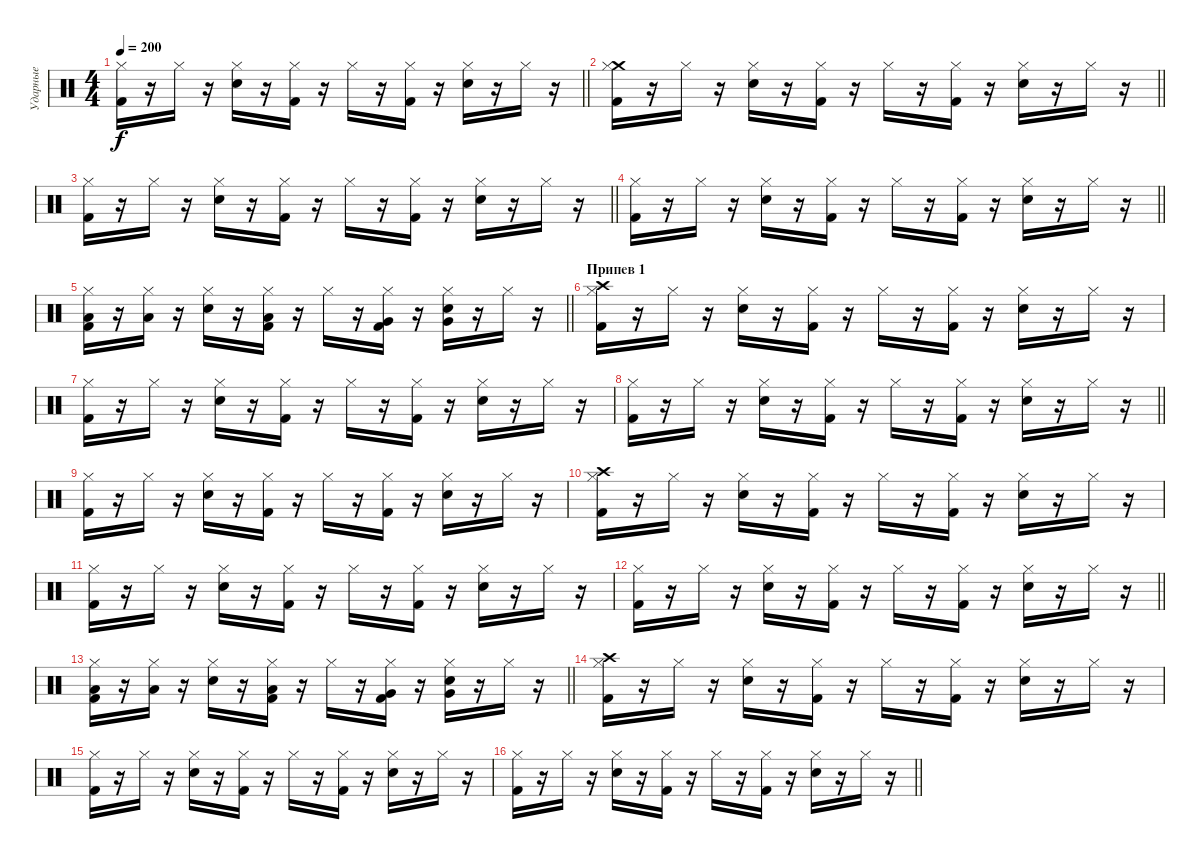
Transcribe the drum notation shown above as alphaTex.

\track ("Ударные" "Ударные") {instrument percussion}
\staff {score}
\articulation defaults
\ts (4 4)
\tempo 200
\clef neutral
\barLineRight lightlight
\ks c
("Kick (hit) 2" "Hi-Hat (closed)").16{dy f} r.16 "Hi-Hat (closed)".16 r.16 ("Snare (hit) 2" "Hi-Hat (closed)").16 r.16 ("Kick (hit) 2" "Hi-Hat (closed)").16 r.16 "Hi-Hat (closed)".16 r.16 ("Kick (hit) 2" "Hi-Hat (closed)").16 r.16 ("Snare (hit) 2" "Hi-Hat (closed)").16 r.16 "Hi-Hat (closed)".16 r.16 |
\barLineRight lightlight
("Kick (hit) 2" "Crash medium (hit)" "Hi-Hat (closed)").16 r.16 "Hi-Hat (closed)".16 r.16 ("Snare (hit) 2" "Hi-Hat (closed)").16 r.16 ("Kick (hit) 2" "Hi-Hat (closed)").16 r.16 "Hi-Hat (closed)".16 r.16 ("Kick (hit) 2" "Hi-Hat (closed)").16 r.16 ("Snare (hit) 2" "Hi-Hat (closed)").16 r.16 "Hi-Hat (closed)".16 r.16 |
\barLineRight lightlight
("Kick (hit) 2" "Hi-Hat (closed)").16 r.16 "Hi-Hat (closed)".16 r.16 ("Snare (hit) 2" "Hi-Hat (closed)").16 r.16 ("Kick (hit) 2" "Hi-Hat (closed)").16 r.16 "Hi-Hat (closed)".16 r.16 ("Kick (hit) 2" "Hi-Hat (closed)").16 r.16 ("Snare (hit) 2" "Hi-Hat (closed)").16 r.16 "Hi-Hat (closed)".16 r.16 |
\barLineRight lightlight
("Kick (hit) 2" "Hi-Hat (closed)").16 r.16 "Hi-Hat (closed)".16 r.16 ("Snare (hit) 2" "Hi-Hat (closed)").16 r.16 ("Kick (hit) 2" "Hi-Hat (closed)").16 r.16 "Hi-Hat (closed)".16 r.16 ("Kick (hit) 2" "Hi-Hat (closed)").16 r.16 ("Snare (hit) 2" "Hi-Hat (closed)").16 r.16 "Hi-Hat (closed)".16 r.16 |
\barLineRight lightlight
("Kick (hit) 2" "Low Floor Tom (hit)" "Hi-Hat (closed)").16 r.16 ("Low Floor Tom (hit)" "Hi-Hat (closed)").16 r.16 ("Snare (hit) 2" "Hi-Hat (closed)").16 r.16 ("Kick (hit) 2" "Low Floor Tom (hit)" "Hi-Hat (closed)").16 r.16 "Hi-Hat (closed)".16 r.16 ("Kick (hit) 2" "Very Low Tom (hit)" "Hi-Hat (closed)").16 r.16 ("Snare (hit) 2" "Very Low Tom (hit)" "Hi-Hat (closed)").16 r.16 "Hi-Hat (closed)".16 r.16 |
\section ("" "Припев 1")
("Kick (hit) 2" "Crash high (hit)" "Hi-Hat (closed)").16 r.16 "Hi-Hat (closed)".16 r.16 ("Snare (hit) 2" "Hi-Hat (closed)").16 r.16 ("Kick (hit) 2" "Hi-Hat (closed)").16 r.16 "Hi-Hat (closed)".16 r.16 ("Kick (hit) 2" "Hi-Hat (closed)").16 r.16 ("Snare (hit) 2" "Hi-Hat (closed)").16 r.16 "Hi-Hat (closed)".16 r.16 |
("Kick (hit) 2" "Hi-Hat (closed)").16 r.16 "Hi-Hat (closed)".16 r.16 ("Snare (hit) 2" "Hi-Hat (closed)").16 r.16 ("Kick (hit) 2" "Hi-Hat (closed)").16 r.16 "Hi-Hat (closed)".16 r.16 ("Kick (hit) 2" "Hi-Hat (closed)").16 r.16 ("Snare (hit) 2" "Hi-Hat (closed)").16 r.16 "Hi-Hat (closed)".16 r.16 |
\barLineRight lightlight
("Kick (hit) 2" "Hi-Hat (closed)").16 r.16 "Hi-Hat (closed)".16 r.16 ("Snare (hit) 2" "Hi-Hat (closed)").16 r.16 ("Kick (hit) 2" "Hi-Hat (closed)").16 r.16 "Hi-Hat (closed)".16 r.16 ("Kick (hit) 2" "Hi-Hat (closed)").16 r.16 ("Snare (hit) 2" "Hi-Hat (closed)").16 r.16 "Hi-Hat (closed)".16 r.16 |
("Kick (hit) 2" "Hi-Hat (closed)").16 r.16 "Hi-Hat (closed)".16 r.16 ("Snare (hit) 2" "Hi-Hat (closed)").16 r.16 ("Kick (hit) 2" "Hi-Hat (closed)").16 r.16 "Hi-Hat (closed)".16 r.16 ("Kick (hit) 2" "Hi-Hat (closed)").16 r.16 ("Snare (hit) 2" "Hi-Hat (closed)").16 r.16 "Hi-Hat (closed)".16 r.16 |
("Kick (hit) 2" "Crash high (hit)" "Hi-Hat (closed)").16 r.16 "Hi-Hat (closed)".16 r.16 ("Snare (hit) 2" "Hi-Hat (closed)").16 r.16 ("Kick (hit) 2" "Hi-Hat (closed)").16 r.16 "Hi-Hat (closed)".16 r.16 ("Kick (hit) 2" "Hi-Hat (closed)").16 r.16 ("Snare (hit) 2" "Hi-Hat (closed)").16 r.16 "Hi-Hat (closed)".16 r.16 |
("Kick (hit) 2" "Hi-Hat (closed)").16 r.16 "Hi-Hat (closed)".16 r.16 ("Snare (hit) 2" "Hi-Hat (closed)").16 r.16 ("Kick (hit) 2" "Hi-Hat (closed)").16 r.16 "Hi-Hat (closed)".16 r.16 ("Kick (hit) 2" "Hi-Hat (closed)").16 r.16 ("Snare (hit) 2" "Hi-Hat (closed)").16 r.16 "Hi-Hat (closed)".16 r.16 |
\barLineRight lightlight
("Kick (hit) 2" "Hi-Hat (closed)").16 r.16 "Hi-Hat (closed)".16 r.16 ("Snare (hit) 2" "Hi-Hat (closed)").16 r.16 ("Kick (hit) 2" "Hi-Hat (closed)").16 r.16 "Hi-Hat (closed)".16 r.16 ("Kick (hit) 2" "Hi-Hat (closed)").16 r.16 ("Snare (hit) 2" "Hi-Hat (closed)").16 r.16 "Hi-Hat (closed)".16 r.16 |
\barLineRight lightlight
("Kick (hit) 2" "Low Floor Tom (hit)" "Hi-Hat (closed)").16 r.16 ("Low Floor Tom (hit)" "Hi-Hat (closed)").16 r.16 ("Snare (hit) 2" "Hi-Hat (closed)").16 r.16 ("Kick (hit) 2" "Low Floor Tom (hit)" "Hi-Hat (closed)").16 r.16 "Hi-Hat (closed)".16 r.16 ("Kick (hit) 2" "Very Low Tom (hit)" "Hi-Hat (closed)").16 r.16 ("Snare (hit) 2" "Very Low Tom (hit)" "Hi-Hat (closed)").16 r.16 "Hi-Hat (closed)".16 r.16 |
("Kick (hit) 2" "Crash high (hit)" "Hi-Hat (closed)").16 r.16 "Hi-Hat (closed)".16 r.16 ("Snare (hit) 2" "Hi-Hat (closed)").16 r.16 ("Kick (hit) 2" "Hi-Hat (closed)").16 r.16 "Hi-Hat (closed)".16 r.16 ("Kick (hit) 2" "Hi-Hat (closed)").16 r.16 ("Snare (hit) 2" "Hi-Hat (closed)").16 r.16 "Hi-Hat (closed)".16 r.16 |
("Kick (hit) 2" "Hi-Hat (closed)").16 r.16 "Hi-Hat (closed)".16 r.16 ("Snare (hit) 2" "Hi-Hat (closed)").16 r.16 ("Kick (hit) 2" "Hi-Hat (closed)").16 r.16 "Hi-Hat (closed)".16 r.16 ("Kick (hit) 2" "Hi-Hat (closed)").16 r.16 ("Snare (hit) 2" "Hi-Hat (closed)").16 r.16 "Hi-Hat (closed)".16 r.16 |
\barLineRight lightlight
("Kick (hit) 2" "Hi-Hat (closed)").16 r.16 "Hi-Hat (closed)".16 r.16 ("Snare (hit) 2" "Hi-Hat (closed)").16 r.16 ("Kick (hit) 2" "Hi-Hat (closed)").16 r.16 "Hi-Hat (closed)".16 r.16 ("Kick (hit) 2" "Hi-Hat (closed)").16 r.16 ("Snare (hit) 2" "Hi-Hat (closed)").16 r.16 "Hi-Hat (closed)".16 r.16
